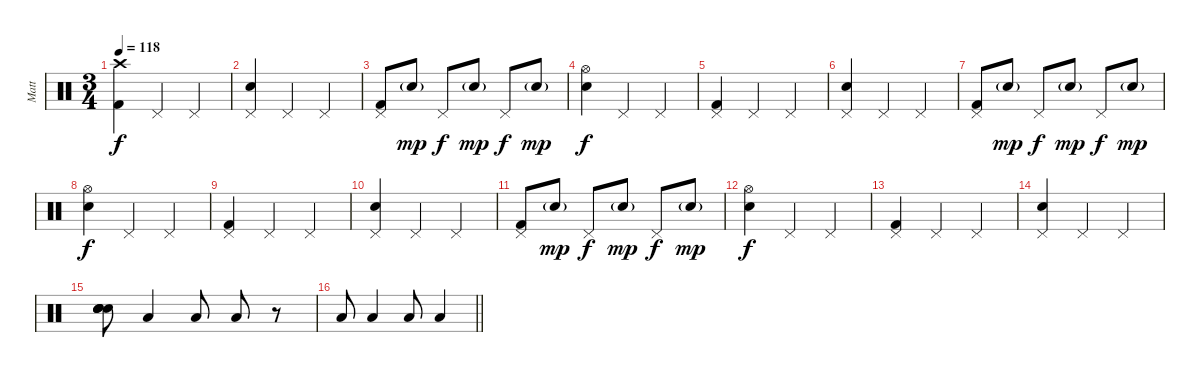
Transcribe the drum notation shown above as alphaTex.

\track ("Matt" "Matt") {instrument percussion}
\staff {score}
\articulation defaults
\ts (3 4)
\tempo 118
\clef neutral
\ks c
("Crash high (hit)" "Kick (hit) 2").4{dy f} "Pedal Hi-Hat (hit)".4 "Pedal Hi-Hat (hit)".4 |
("Pedal Hi-Hat (hit)" "Snare (hit) 2").4 "Pedal Hi-Hat (hit)".4 "Pedal Hi-Hat (hit)".4 |
("Pedal Hi-Hat (hit)" "Kick (hit) 2").8 "Snare (hit) 2"{g}.8{dy mp} "Pedal Hi-Hat (hit)".8{dy f} "Snare (hit) 2"{g}.8{dy mp} "Pedal Hi-Hat (hit)".8{dy f} "Snare (hit) 2"{g}.8{dy mp} |
("Hi-Hat (open)" "Snare (hit) 2").4{dy f} "Pedal Hi-Hat (hit)".4 "Pedal Hi-Hat (hit)".4 |
("Pedal Hi-Hat (hit)" "Kick (hit) 2").4 "Pedal Hi-Hat (hit)".4 "Pedal Hi-Hat (hit)".4 |
("Pedal Hi-Hat (hit)" "Snare (hit) 2").4 "Pedal Hi-Hat (hit)".4 "Pedal Hi-Hat (hit)".4 |
("Pedal Hi-Hat (hit)" "Kick (hit) 2").8 "Snare (hit) 2"{g}.8{dy mp} "Pedal Hi-Hat (hit)".8{dy f} "Snare (hit) 2"{g}.8{dy mp} "Pedal Hi-Hat (hit)".8{dy f} "Snare (hit) 2"{g}.8{dy mp} |
("Hi-Hat (open)" "Snare (hit) 2").4{dy f} "Pedal Hi-Hat (hit)".4 "Pedal Hi-Hat (hit)".4 |
("Pedal Hi-Hat (hit)" "Kick (hit) 2").4 "Pedal Hi-Hat (hit)".4 "Pedal Hi-Hat (hit)".4 |
("Pedal Hi-Hat (hit)" "Snare (hit) 2").4 "Pedal Hi-Hat (hit)".4 "Pedal Hi-Hat (hit)".4 |
("Pedal Hi-Hat (hit)" "Kick (hit) 2").8 "Snare (hit) 2"{g}.8{dy mp} "Pedal Hi-Hat (hit)".8{dy f} "Snare (hit) 2"{g}.8{dy mp} "Pedal Hi-Hat (hit)".8{dy f} "Snare (hit) 2"{g}.8{dy mp} |
("Hi-Hat (open)" "Snare (hit) 2").4{dy f} "Pedal Hi-Hat (hit)".4 "Pedal Hi-Hat (hit)".4 |
("Pedal Hi-Hat (hit)" "Kick (hit) 2").4 "Pedal Hi-Hat (hit)".4 "Pedal Hi-Hat (hit)".4 |
("Pedal Hi-Hat (hit)" "Snare (hit) 2").4 "Pedal Hi-Hat (hit)".4 "Pedal Hi-Hat (hit)".4 |
("Snare (hit) 2" "Snare (hit) 2" "Snare (hit) 2" "Snare (hit) 2").8{bd 480} "Low Tom (hit)".4 "Low Tom (hit)".8 "Low Tom (hit)".8 r.8 |
\barLineRight lightlight "Low Floor Tom (hit)".8 "Low Floor Tom (hit)".4 "Low Floor Tom (hit)".8 "Low Floor Tom (hit)".4
